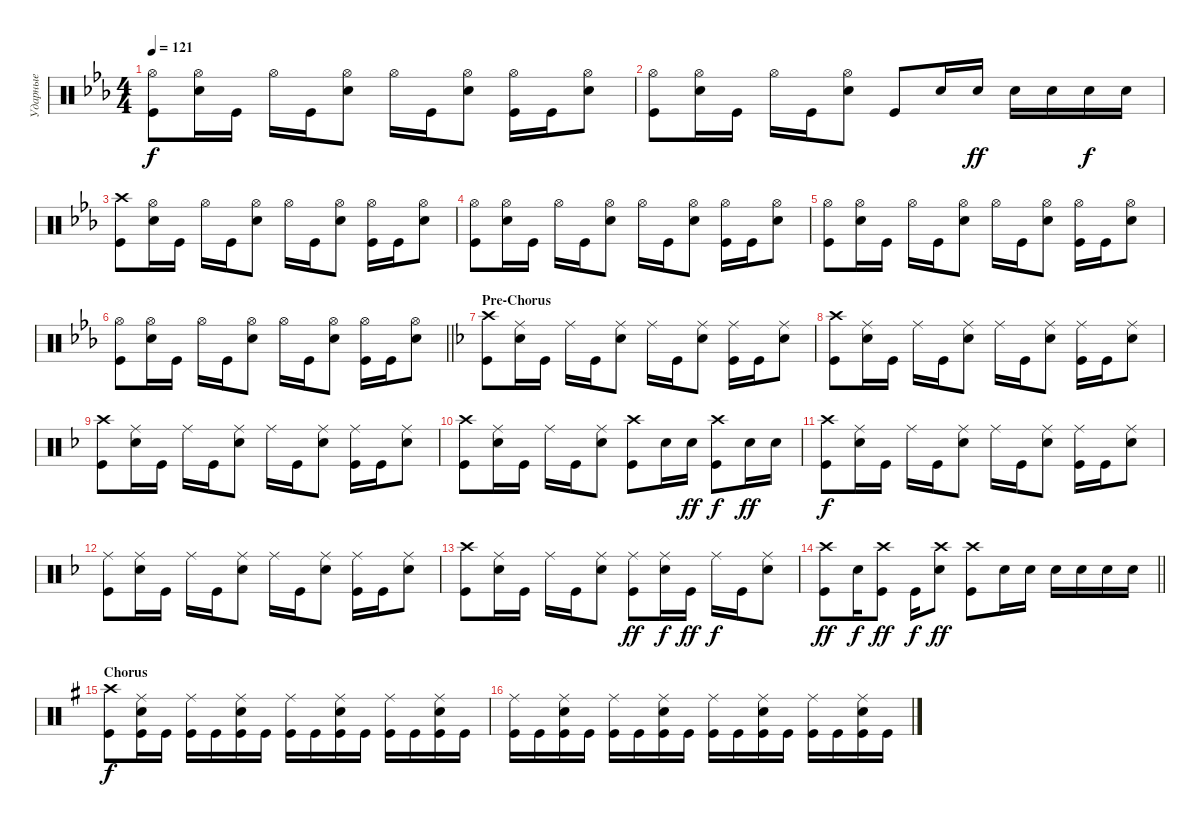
\track ("Ударные" "Ударные") {instrument percussion}
\staff {score}
\articulation defaults
\ts (4 4)
\tempo 121
\clef neutral
\ks cminor
("Kick (hit)" "Hi-Hat (open)").8{dy f} ("Snare (hit) 2" "Hi-Hat (open)").16 "Kick (hit)".16 "Hi-Hat (open)".16 "Kick (hit)".16 ("Snare (hit) 2" "Hi-Hat (open)").8 "Hi-Hat (open)".16 "Kick (hit)".16 ("Snare (hit) 2" "Hi-Hat (open)").8 ("Kick (hit)" "Hi-Hat (open)").16 "Kick (hit)".16 ("Snare (hit) 2" "Hi-Hat (open)").8 |
("Kick (hit)" "Hi-Hat (open)").8 ("Snare (hit) 2" "Hi-Hat (open)").16 "Kick (hit)".16 "Hi-Hat (open)".16 "Kick (hit)".16 ("Snare (hit) 2" "Hi-Hat (open)").8 "Kick (hit)".8 "Snare (hit) 2".16 "Snare (hit) 2".16{dy ff} "Snare (hit) 2".16 "Snare (hit) 2".16 "Snare (hit) 2".16{dy f} "Snare (hit) 2".16 |
("Kick (hit)" "Crash high (hit)").8 ("Snare (hit) 2" "Hi-Hat (open)").16 "Kick (hit)".16 "Hi-Hat (open)".16 "Kick (hit)".16 ("Snare (hit) 2" "Hi-Hat (open)").8 "Hi-Hat (open)".16 "Kick (hit)".16 ("Snare (hit) 2" "Hi-Hat (open)").8 ("Kick (hit)" "Hi-Hat (open)").16 "Kick (hit)".16 ("Snare (hit) 2" "Hi-Hat (open)").8 |
("Kick (hit)" "Hi-Hat (open)").8 ("Snare (hit) 2" "Hi-Hat (open)").16 "Kick (hit)".16 "Hi-Hat (open)".16 "Kick (hit)".16 ("Snare (hit) 2" "Hi-Hat (open)").8 "Hi-Hat (open)".16 "Kick (hit)".16 ("Snare (hit) 2" "Hi-Hat (open)").8 ("Kick (hit)" "Hi-Hat (open)").16 "Kick (hit)".16 ("Snare (hit) 2" "Hi-Hat (open)").8 |
("Kick (hit)" "Hi-Hat (open)").8 ("Snare (hit) 2" "Hi-Hat (open)").16 "Kick (hit)".16 "Hi-Hat (open)".16 "Kick (hit)".16 ("Snare (hit) 2" "Hi-Hat (open)").8 "Hi-Hat (open)".16 "Kick (hit)".16 ("Snare (hit) 2" "Hi-Hat (open)").8 ("Kick (hit)" "Hi-Hat (open)").16 "Kick (hit)".16 ("Snare (hit) 2" "Hi-Hat (open)").8 |
\barLineRight lightlight
("Kick (hit)" "Hi-Hat (open)").8 ("Snare (hit) 2" "Hi-Hat (open)").16 "Kick (hit)".16 "Hi-Hat (open)".16 "Kick (hit)".16 ("Snare (hit) 2" "Hi-Hat (open)").8 "Hi-Hat (open)".16 "Kick (hit)".16 ("Snare (hit) 2" "Hi-Hat (open)").8 ("Kick (hit)" "Hi-Hat (open)").16 "Kick (hit)".16 ("Snare (hit) 2" "Hi-Hat (open)").8 |
\section ("" "Pre-Chorus")
\ks dminor
("Kick (hit)" "Crash high (hit)").8 ("Snare (hit) 2" "Ride (middle)").16 "Kick (hit)".16 "Ride (middle)".16 "Kick (hit)".16 ("Snare (hit) 2" "Ride (middle)").8 "Ride (middle)".16 "Kick (hit)".16 ("Snare (hit) 2" "Ride (middle)").8 ("Kick (hit)" "Ride (middle)").16 "Kick (hit)".16 ("Snare (hit) 2" "Ride (middle)").8 |
("Kick (hit)" "Crash high (hit)").8 ("Snare (hit) 2" "Ride (middle)").16 "Kick (hit)".16 "Ride (middle)".16 "Kick (hit)".16 ("Snare (hit) 2" "Ride (middle)").8 "Ride (middle)".16 "Kick (hit)".16 ("Snare (hit) 2" "Ride (middle)").8 ("Kick (hit)" "Ride (middle)").16 "Kick (hit)".16 ("Snare (hit) 2" "Ride (middle)").8 |
("Kick (hit)" "Crash high (hit)").8 ("Snare (hit) 2" "Ride (middle)").16 "Kick (hit)".16 "Ride (middle)".16 "Kick (hit)".16 ("Snare (hit) 2" "Ride (middle)").8 "Ride (middle)".16 "Kick (hit)".16 ("Snare (hit) 2" "Ride (middle)").8 ("Kick (hit)" "Ride (middle)").16 "Kick (hit)".16 ("Snare (hit) 2" "Ride (middle)").8 |
("Kick (hit)" "Crash high (hit)").8 ("Snare (hit) 2" "Ride (middle)").16 "Kick (hit)".16 "Ride (middle)".16 "Kick (hit)".16 ("Snare (hit) 2" "Ride (middle)").8 ("Kick (hit)" "Crash high (hit)").8 "Snare (hit) 2".16 "Snare (hit) 2".16{dy ff} ("Kick (hit)" "Crash high (hit)").8{dy f} "Snare (hit) 2".16{dy ff} "Snare (hit) 2".16 |
("Kick (hit)" "Crash high (hit)").8{dy f} ("Snare (hit) 2" "Ride (middle)").16 "Kick (hit)".16 "Ride (middle)".16 "Kick (hit)".16 ("Snare (hit) 2" "Ride (middle)").8 "Ride (middle)".16 "Kick (hit)".16 ("Snare (hit) 2" "Ride (middle)").8 ("Kick (hit)" "Ride (middle)").16 "Kick (hit)".16 ("Snare (hit) 2" "Ride (middle)").8 |
("Kick (hit)" "Ride (middle)").8 ("Snare (hit) 2" "Ride (middle)").16 "Kick (hit)".16 "Ride (middle)".16 "Kick (hit)".16 ("Snare (hit) 2" "Ride (middle)").8 "Ride (middle)".16 "Kick (hit)".16 ("Snare (hit) 2" "Ride (middle)").8 ("Kick (hit)" "Ride (middle)").16 "Kick (hit)".16 ("Snare (hit) 2" "Ride (middle)").8 |
("Kick (hit)" "Crash high (hit)").8 ("Snare (hit) 2" "Ride (middle)").16 "Kick (hit)".16 "Ride (middle)".16 "Kick (hit)".16 ("Snare (hit) 2" "Ride (middle)").8 ("Kick (hit)" "Ride (middle)").8{dy ff} ("Snare (hit) 2" "Ride (middle)").16{dy f} "Kick (hit)".16{dy ff} "Ride (middle)".16{dy f} "Kick (hit)".16 ("Snare (hit) 2" "Ride (middle)").8 |
\barLineRight lightlight
("Kick (hit)" "Crash high (hit)").8{dy ff} "Snare (hit) 2".16{dy f} ("Kick (hit)" "Crash high (hit)").8{dy ff} "Kick (hit)".16{dy f} ("Snare (hit) 2" "Crash high (hit)").8{dy ff} ("Kick (hit)" "Crash high (hit)").8 "Snare (hit) 2".16 "Snare (hit) 2".16 "Snare (hit) 2".16 "Snare (hit) 2".16 "Snare (hit) 2".16 "Snare (hit) 2".16 |
\section ("" "Chorus")
\ks eminor
("Kick (hit)" "Crash high (hit)").8{dy f} ("Kick (hit)" "Snare (hit) 2" "Ride (middle)").16 "Kick (hit)".16 ("Kick (hit)" "Ride (middle)").16 "Kick (hit)".16 ("Kick (hit)" "Snare (hit) 2" "Ride (middle)").16 "Kick (hit)".16 ("Kick (hit)" "Ride (middle)").16 "Kick (hit)".16 ("Kick (hit)" "Snare (hit) 2" "Ride (middle)").16 "Kick (hit)".16 ("Kick (hit)" "Ride (middle)").16 "Kick (hit)".16 ("Kick (hit)" "Snare (hit) 2" "Ride (middle)").16 "Kick (hit)".16 |
("Kick (hit)" "Ride (middle)").16 "Kick (hit)".16 ("Kick (hit)" "Snare (hit) 2" "Ride (middle)").16 "Kick (hit)".16 ("Kick (hit)" "Ride (middle)").16 "Kick (hit)".16 ("Kick (hit)" "Snare (hit) 2" "Ride (middle)").16 "Kick (hit)".16 ("Kick (hit)" "Ride (middle)").16 "Kick (hit)".16 ("Kick (hit)" "Snare (hit) 2" "Ride (middle)").16 "Kick (hit)".16 ("Kick (hit)" "Ride (middle)").16 "Kick (hit)".16 ("Kick (hit)" "Snare (hit) 2" "Ride (middle)").16 "Kick (hit)".16
